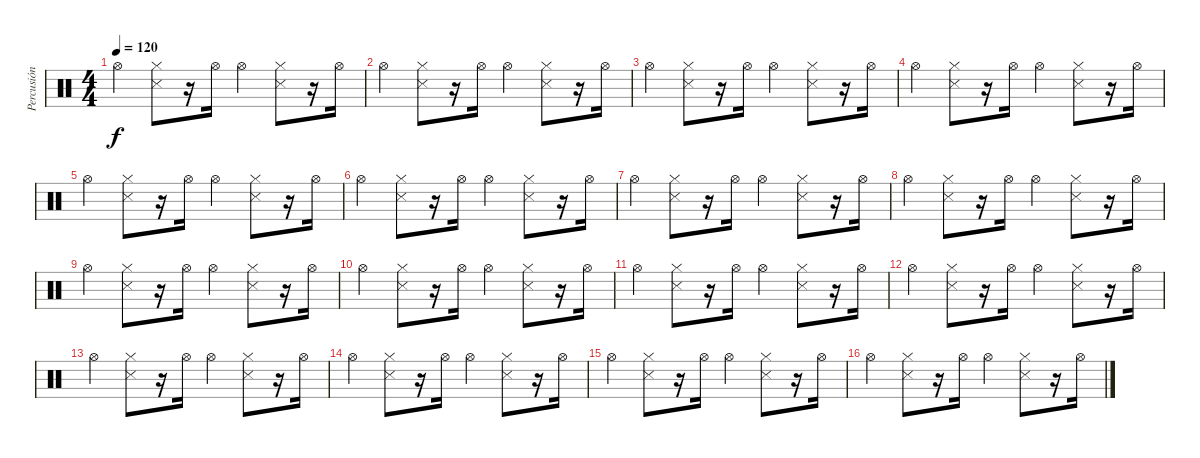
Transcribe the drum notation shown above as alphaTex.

\track ("Percusión" "Percusión") {instrument percussion}
\staff {score}
\articulation defaults
\ts (4 4)
\tempo 120
\clef neutral
\ks c "Hi-Hat (open)".4{dy f}
("Hi-Hat (closed)" "Snare (side stick) 3").8 r.16 "Hi-Hat (open)".16 "Hi-Hat (open)".4 ("Hi-Hat (closed)" "Snare (side stick) 3").8 r.16 "Hi-Hat (open)".16 |
"Hi-Hat (open)".4 ("Hi-Hat (closed)" "Snare (side stick) 3").8 r.16 "Hi-Hat (open)".16 "Hi-Hat (open)".4 ("Hi-Hat (closed)" "Snare (side stick) 3").8 r.16 "Hi-Hat (open)".16 |
"Hi-Hat (open)".4 ("Hi-Hat (closed)" "Snare (side stick) 3").8 r.16 "Hi-Hat (open)".16 "Hi-Hat (open)".4 ("Hi-Hat (closed)" "Snare (side stick) 3").8 r.16 "Hi-Hat (open)".16 |
"Hi-Hat (open)".4 ("Hi-Hat (closed)" "Snare (side stick) 3").8 r.16 "Hi-Hat (open)".16 "Hi-Hat (open)".4 ("Hi-Hat (closed)" "Snare (side stick) 3").8 r.16 "Hi-Hat (open)".16 |
"Hi-Hat (open)".4 ("Hi-Hat (closed)" "Snare (side stick) 3").8 r.16 "Hi-Hat (open)".16 "Hi-Hat (open)".4 ("Hi-Hat (closed)" "Snare (side stick) 3").8 r.16 "Hi-Hat (open)".16 |
"Hi-Hat (open)".4 ("Hi-Hat (closed)" "Snare (side stick) 3").8 r.16 "Hi-Hat (open)".16 "Hi-Hat (open)".4 ("Hi-Hat (closed)" "Snare (side stick) 3").8 r.16 "Hi-Hat (open)".16 |
"Hi-Hat (open)".4 ("Hi-Hat (closed)" "Snare (side stick) 3").8 r.16 "Hi-Hat (open)".16 "Hi-Hat (open)".4 ("Hi-Hat (closed)" "Snare (side stick) 3").8 r.16 "Hi-Hat (open)".16 |
"Hi-Hat (open)".4 ("Hi-Hat (closed)" "Snare (side stick) 3").8 r.16 "Hi-Hat (open)".16 "Hi-Hat (open)".4 ("Hi-Hat (closed)" "Snare (side stick) 3").8 r.16 "Hi-Hat (open)".16 |
"Hi-Hat (open)".4 ("Hi-Hat (closed)" "Snare (side stick) 3").8 r.16 "Hi-Hat (open)".16 "Hi-Hat (open)".4 ("Hi-Hat (closed)" "Snare (side stick) 3").8 r.16 "Hi-Hat (open)".16 |
"Hi-Hat (open)".4 ("Hi-Hat (closed)" "Snare (side stick) 3").8 r.16 "Hi-Hat (open)".16 "Hi-Hat (open)".4 ("Hi-Hat (closed)" "Snare (side stick) 3").8 r.16 "Hi-Hat (open)".16 |
"Hi-Hat (open)".4 ("Hi-Hat (closed)" "Snare (side stick) 3").8 r.16 "Hi-Hat (open)".16 "Hi-Hat (open)".4 ("Hi-Hat (closed)" "Snare (side stick) 3").8 r.16 "Hi-Hat (open)".16 |
"Hi-Hat (open)".4 ("Hi-Hat (closed)" "Snare (side stick) 3").8 r.16 "Hi-Hat (open)".16 "Hi-Hat (open)".4 ("Hi-Hat (closed)" "Snare (side stick) 3").8 r.16 "Hi-Hat (open)".16 |
"Hi-Hat (open)".4 ("Hi-Hat (closed)" "Snare (side stick) 3").8 r.16 "Hi-Hat (open)".16 "Hi-Hat (open)".4 ("Hi-Hat (closed)" "Snare (side stick) 3").8 r.16 "Hi-Hat (open)".16 |
"Hi-Hat (open)".4 ("Hi-Hat (closed)" "Snare (side stick) 3").8 r.16 "Hi-Hat (open)".16 "Hi-Hat (open)".4 ("Hi-Hat (closed)" "Snare (side stick) 3").8 r.16 "Hi-Hat (open)".16 |
"Hi-Hat (open)".4 ("Hi-Hat (closed)" "Snare (side stick) 3").8 r.16 "Hi-Hat (open)".16 "Hi-Hat (open)".4 ("Hi-Hat (closed)" "Snare (side stick) 3").8 r.16 "Hi-Hat (open)".16 |
"Hi-Hat (open)".4 ("Hi-Hat (closed)" "Snare (side stick) 3").8 r.16 "Hi-Hat (open)".16 "Hi-Hat (open)".4 ("Hi-Hat (closed)" "Snare (side stick) 3").8 r.16 "Hi-Hat (open)".16
